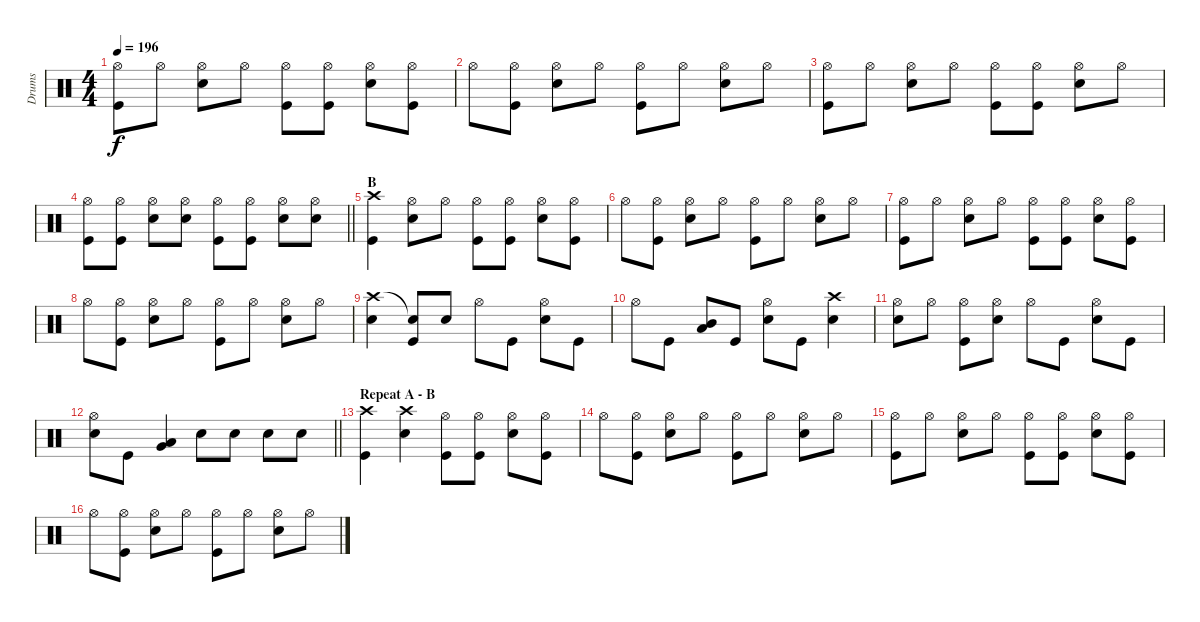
\track ("Drums" "Drums") {instrument percussion}
\staff {score}
\articulation defaults
\ts (4 4)
\tempo 196
\clef neutral
\ks c
("Hi-Hat (open)" "Kick (hit)").8{dy f} "Hi-Hat (open)".8 ("Hi-Hat (open)" "Electric Snare (hit)").8 "Hi-Hat (open)".8 ("Hi-Hat (open)" "Kick (hit)").8 ("Hi-Hat (open)" "Kick (hit)").8 ("Hi-Hat (open)" "Electric Snare (hit)").8 ("Hi-Hat (open)" "Kick (hit)").8 |
"Hi-Hat (open)".8 ("Hi-Hat (open)" "Kick (hit)").8 ("Hi-Hat (open)" "Electric Snare (hit)").8 "Hi-Hat (open)".8 ("Hi-Hat (open)" "Kick (hit)").8 "Hi-Hat (open)".8 ("Hi-Hat (open)" "Electric Snare (hit)").8 "Hi-Hat (open)".8 |
("Hi-Hat (open)" "Kick (hit)").8 "Hi-Hat (open)".8 ("Hi-Hat (open)" "Electric Snare (hit)").8 "Hi-Hat (open)".8 ("Hi-Hat (open)" "Kick (hit)").8 ("Hi-Hat (open)" "Kick (hit)").8 ("Hi-Hat (open)" "Electric Snare (hit)").8 "Hi-Hat (open)".8 |
\barLineRight lightlight
("Hi-Hat (open)" "Kick (hit)").8 ("Hi-Hat (open)" "Kick (hit)").8 ("Hi-Hat (open)" "Electric Snare (hit)").8 ("Hi-Hat (open)" "Electric Snare (hit)").8 ("Hi-Hat (open)" "Kick (hit)").8 ("Hi-Hat (open)" "Kick (hit)").8 ("Hi-Hat (open)" "Electric Snare (hit)").8 ("Hi-Hat (open)" "Electric Snare (hit)").8 |
\section ("" "B")
("Crash high (hit)" "Kick (hit)").4 ("Hi-Hat (open)" "Electric Snare (hit)").8 "Hi-Hat (open)".8 ("Hi-Hat (open)" "Kick (hit)").8 ("Hi-Hat (open)" "Kick (hit)").8 ("Hi-Hat (open)" "Electric Snare (hit)").8 ("Hi-Hat (open)" "Kick (hit)").8 |
"Hi-Hat (open)".8 ("Hi-Hat (open)" "Kick (hit)").8 ("Hi-Hat (open)" "Electric Snare (hit)").8 "Hi-Hat (open)".8 ("Hi-Hat (open)" "Kick (hit)").8 "Hi-Hat (open)".8 ("Hi-Hat (open)" "Electric Snare (hit)").8 "Hi-Hat (open)".8 |
("Hi-Hat (open)" "Kick (hit)").8 "Hi-Hat (open)".8 ("Hi-Hat (open)" "Electric Snare (hit)").8 "Hi-Hat (open)".8 ("Hi-Hat (open)" "Kick (hit)").8 ("Hi-Hat (open)" "Kick (hit)").8 ("Hi-Hat (open)" "Electric Snare (hit)").8 ("Hi-Hat (open)" "Kick (hit)").8 |
"Hi-Hat (open)".8 ("Hi-Hat (open)" "Kick (hit)").8 ("Hi-Hat (open)" "Electric Snare (hit)").8 "Hi-Hat (open)".8 ("Hi-Hat (open)" "Kick (hit)").8 "Hi-Hat (open)".8 ("Hi-Hat (open)" "Electric Snare (hit)").8 "Hi-Hat (open)".8 |
("Crash high (hit)" "Electric Snare (hit)").4 ("Snare (hit)"{t} "Kick (hit)").8 "Electric Snare (hit)".8 "Hi-Hat (open)".8 "Kick (hit)".8 ("Hi-Hat (open)" "Electric Snare (hit)").8 "Kick (hit)".8 |
"Hi-Hat (open)".8 "Kick (hit)".8 ("Mid Tom (hit)" "Low Tom (hit)").8 "Kick (hit)".8 ("Hi-Hat (open)" "Electric Snare (hit)").8 "Kick (hit)".8 ("Crash high (hit)" "Electric Snare (hit)").4 |
("Hi-Hat (open)" "Electric Snare (hit)").8 "Hi-Hat (open)".8 ("Hi-Hat (open)" "Kick (hit)").8 ("Hi-Hat (open)" "Electric Snare (hit)").8 "Hi-Hat (open)".8 "Kick (hit)".8 ("Hi-Hat (open)" "Electric Snare (hit)").8 "Kick (hit)".8 |
\barLineRight lightlight
("Hi-Hat (open)" "Electric Snare (hit)").8 "Kick (hit)".8 ("Low Tom (hit)" "Very Low Tom (hit)").4 "Electric Snare (hit)".8 "Electric Snare (hit)".8 "Electric Snare (hit)".8 "Electric Snare (hit)".8 |
\section ("" "Repeat A - B")
("Crash high (hit)" "Kick (hit)").4 ("Crash high (hit)" "Electric Snare (hit)").4 ("Hi-Hat (open)" "Kick (hit)").8 ("Hi-Hat (open)" "Kick (hit)").8 ("Hi-Hat (open)" "Electric Snare (hit)").8 ("Hi-Hat (open)" "Kick (hit)").8 |
"Hi-Hat (open)".8 ("Hi-Hat (open)" "Kick (hit)").8 ("Hi-Hat (open)" "Electric Snare (hit)").8 "Hi-Hat (open)".8 ("Hi-Hat (open)" "Kick (hit)").8 "Hi-Hat (open)".8 ("Hi-Hat (open)" "Electric Snare (hit)").8 "Hi-Hat (open)".8 |
("Hi-Hat (open)" "Kick (hit)").8 "Hi-Hat (open)".8 ("Hi-Hat (open)" "Electric Snare (hit)").8 "Hi-Hat (open)".8 ("Hi-Hat (open)" "Kick (hit)").8 ("Hi-Hat (open)" "Kick (hit)").8 ("Hi-Hat (open)" "Electric Snare (hit)").8 ("Hi-Hat (open)" "Kick (hit)").8 |
"Hi-Hat (open)".8 ("Hi-Hat (open)" "Kick (hit)").8 ("Hi-Hat (open)" "Electric Snare (hit)").8 "Hi-Hat (open)".8 ("Hi-Hat (open)" "Kick (hit)").8 "Hi-Hat (open)".8 ("Hi-Hat (open)" "Electric Snare (hit)").8 "Hi-Hat (open)".8
